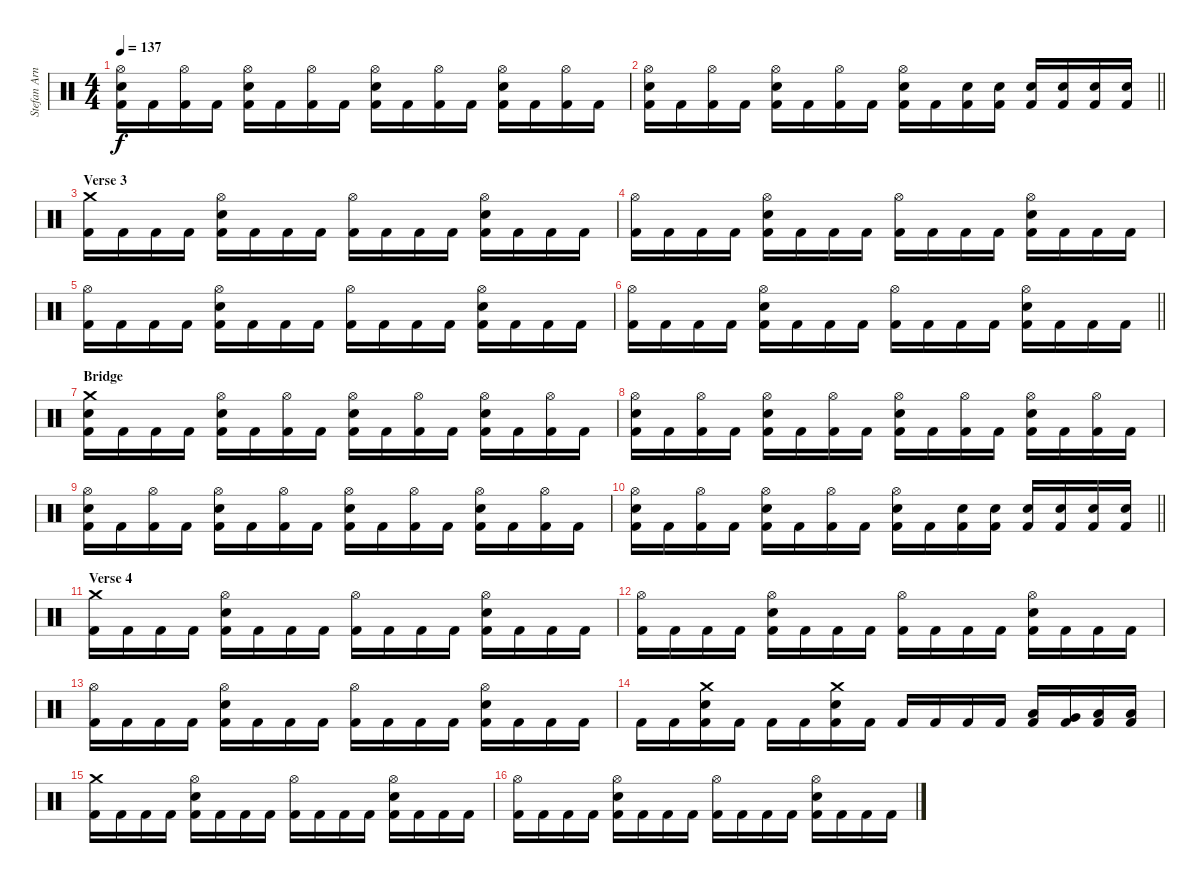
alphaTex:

\track ("Stefan Arnold" "Stefan Arn") {instrument percussion}
\staff {score}
\articulation defaults
\ts (4 4)
\tempo 137
\clef neutral
\ks c
("Hi-Hat (open)" "Electric Snare (hit)" "Kick (hit) 2").16{dy f} "Kick (hit) 2".16 ("Hi-Hat (open)" "Kick (hit) 2").16 "Kick (hit) 2".16 ("Hi-Hat (open)" "Electric Snare (hit)" "Kick (hit) 2").16 "Kick (hit) 2".16 ("Hi-Hat (open)" "Kick (hit) 2").16 "Kick (hit) 2".16 ("Hi-Hat (open)" "Electric Snare (hit)" "Kick (hit) 2").16 "Kick (hit) 2".16 ("Hi-Hat (open)" "Kick (hit) 2").16 "Kick (hit) 2".16 ("Hi-Hat (open)" "Electric Snare (hit)" "Kick (hit) 2").16 "Kick (hit) 2".16 ("Hi-Hat (open)" "Kick (hit) 2").16 "Kick (hit) 2".16 |
\barLineRight lightlight
("Hi-Hat (open)" "Electric Snare (hit)" "Kick (hit) 2").16 "Kick (hit) 2".16 ("Hi-Hat (open)" "Kick (hit) 2").16 "Kick (hit) 2".16 ("Hi-Hat (open)" "Electric Snare (hit)" "Kick (hit) 2").16 "Kick (hit) 2".16 ("Hi-Hat (open)" "Kick (hit) 2").16 "Kick (hit) 2".16 ("Hi-Hat (open)" "Electric Snare (hit)" "Kick (hit) 2").16 "Kick (hit) 2".16 ("Electric Snare (hit)" "Kick (hit) 2").16 ("Electric Snare (hit)" "Kick (hit) 2").16 ("Electric Snare (hit)" "Kick (hit) 2").16 ("Electric Snare (hit)" "Kick (hit) 2").16 ("Electric Snare (hit)" "Kick (hit) 2").16 ("Electric Snare (hit)" "Kick (hit) 2").16 |
\section ("" "Verse 3")
("Crash medium (hit)" "Kick (hit) 2").16 "Kick (hit) 2".16 "Kick (hit) 2".16 "Kick (hit) 2".16 ("Hi-Hat (open)" "Electric Snare (hit)" "Kick (hit) 2").16 "Kick (hit) 2".16 "Kick (hit) 2".16 "Kick (hit) 2".16 ("Hi-Hat (open)" "Kick (hit) 2").16 "Kick (hit) 2".16 "Kick (hit) 2".16 "Kick (hit) 2".16 ("Hi-Hat (open)" "Electric Snare (hit)" "Kick (hit) 2").16 "Kick (hit) 2".16 "Kick (hit) 2".16 "Kick (hit) 2".16 |
("Hi-Hat (open)" "Kick (hit) 2").16 "Kick (hit) 2".16 "Kick (hit) 2".16 "Kick (hit) 2".16 ("Hi-Hat (open)" "Electric Snare (hit)" "Kick (hit) 2").16 "Kick (hit) 2".16 "Kick (hit) 2".16 "Kick (hit) 2".16 ("Hi-Hat (open)" "Kick (hit) 2").16 "Kick (hit) 2".16 "Kick (hit) 2".16 "Kick (hit) 2".16 ("Hi-Hat (open)" "Electric Snare (hit)" "Kick (hit) 2").16 "Kick (hit) 2".16 "Kick (hit) 2".16 "Kick (hit) 2".16 |
("Hi-Hat (open)" "Kick (hit) 2").16 "Kick (hit) 2".16 "Kick (hit) 2".16 "Kick (hit) 2".16 ("Hi-Hat (open)" "Electric Snare (hit)" "Kick (hit) 2").16 "Kick (hit) 2".16 "Kick (hit) 2".16 "Kick (hit) 2".16 ("Hi-Hat (open)" "Kick (hit) 2").16 "Kick (hit) 2".16 "Kick (hit) 2".16 "Kick (hit) 2".16 ("Hi-Hat (open)" "Electric Snare (hit)" "Kick (hit) 2").16 "Kick (hit) 2".16 "Kick (hit) 2".16 "Kick (hit) 2".16 |
\barLineRight lightlight
("Hi-Hat (open)" "Kick (hit) 2").16 "Kick (hit) 2".16 "Kick (hit) 2".16 "Kick (hit) 2".16 ("Hi-Hat (open)" "Electric Snare (hit)" "Kick (hit) 2").16 "Kick (hit) 2".16 "Kick (hit) 2".16 "Kick (hit) 2".16 ("Hi-Hat (open)" "Kick (hit) 2").16 "Kick (hit) 2".16 "Kick (hit) 2".16 "Kick (hit) 2".16 ("Hi-Hat (open)" "Electric Snare (hit)" "Kick (hit) 2").16 "Kick (hit) 2".16 "Kick (hit) 2".16 "Kick (hit) 2".16 |
\section ("" "Bridge")
("Crash medium (hit)" "Electric Snare (hit)" "Kick (hit) 2").16 "Kick (hit) 2".16 "Kick (hit) 2".16 "Kick (hit) 2".16 ("Hi-Hat (open)" "Electric Snare (hit)" "Kick (hit) 2").16 "Kick (hit) 2".16 ("Hi-Hat (open)" "Kick (hit) 2").16 "Kick (hit) 2".16 ("Hi-Hat (open)" "Electric Snare (hit)" "Kick (hit) 2").16 "Kick (hit) 2".16 ("Hi-Hat (open)" "Kick (hit) 2").16 "Kick (hit) 2".16 ("Hi-Hat (open)" "Electric Snare (hit)" "Kick (hit) 2").16 "Kick (hit) 2".16 ("Hi-Hat (open)" "Kick (hit) 2").16 "Kick (hit) 2".16 |
("Hi-Hat (open)" "Electric Snare (hit)" "Kick (hit) 2").16 "Kick (hit) 2".16 ("Hi-Hat (open)" "Kick (hit) 2").16 "Kick (hit) 2".16 ("Hi-Hat (open)" "Electric Snare (hit)" "Kick (hit) 2").16 "Kick (hit) 2".16 ("Hi-Hat (open)" "Kick (hit) 2").16 "Kick (hit) 2".16 ("Hi-Hat (open)" "Electric Snare (hit)" "Kick (hit) 2").16 "Kick (hit) 2".16 ("Hi-Hat (open)" "Kick (hit) 2").16 "Kick (hit) 2".16 ("Hi-Hat (open)" "Electric Snare (hit)" "Kick (hit) 2").16 "Kick (hit) 2".16 ("Hi-Hat (open)" "Kick (hit) 2").16 "Kick (hit) 2".16 |
("Hi-Hat (open)" "Electric Snare (hit)" "Kick (hit) 2").16 "Kick (hit) 2".16 ("Hi-Hat (open)" "Kick (hit) 2").16 "Kick (hit) 2".16 ("Hi-Hat (open)" "Electric Snare (hit)" "Kick (hit) 2").16 "Kick (hit) 2".16 ("Hi-Hat (open)" "Kick (hit) 2").16 "Kick (hit) 2".16 ("Hi-Hat (open)" "Electric Snare (hit)" "Kick (hit) 2").16 "Kick (hit) 2".16 ("Hi-Hat (open)" "Kick (hit) 2").16 "Kick (hit) 2".16 ("Hi-Hat (open)" "Electric Snare (hit)" "Kick (hit) 2").16 "Kick (hit) 2".16 ("Hi-Hat (open)" "Kick (hit) 2").16 "Kick (hit) 2".16 |
\barLineRight lightlight
("Hi-Hat (open)" "Electric Snare (hit)" "Kick (hit) 2").16 "Kick (hit) 2".16 ("Hi-Hat (open)" "Kick (hit) 2").16 "Kick (hit) 2".16 ("Hi-Hat (open)" "Electric Snare (hit)" "Kick (hit) 2").16 "Kick (hit) 2".16 ("Hi-Hat (open)" "Kick (hit) 2").16 "Kick (hit) 2".16 ("Hi-Hat (open)" "Electric Snare (hit)" "Kick (hit) 2").16 "Kick (hit) 2".16 ("Electric Snare (hit)" "Kick (hit) 2").16 ("Electric Snare (hit)" "Kick (hit) 2").16 ("Electric Snare (hit)" "Kick (hit) 2").16 ("Electric Snare (hit)" "Kick (hit) 2").16 ("Electric Snare (hit)" "Kick (hit) 2").16 ("Electric Snare (hit)" "Kick (hit) 2").16 |
\section ("" "Verse 4")
("Crash medium (hit)" "Kick (hit) 2").16 "Kick (hit) 2".16 "Kick (hit) 2".16 "Kick (hit) 2".16 ("Hi-Hat (open)" "Electric Snare (hit)" "Kick (hit) 2").16 "Kick (hit) 2".16 "Kick (hit) 2".16 "Kick (hit) 2".16 ("Hi-Hat (open)" "Kick (hit) 2").16 "Kick (hit) 2".16 "Kick (hit) 2".16 "Kick (hit) 2".16 ("Hi-Hat (open)" "Electric Snare (hit)" "Kick (hit) 2").16 "Kick (hit) 2".16 "Kick (hit) 2".16 "Kick (hit) 2".16 |
("Hi-Hat (open)" "Kick (hit) 2").16 "Kick (hit) 2".16 "Kick (hit) 2".16 "Kick (hit) 2".16 ("Hi-Hat (open)" "Electric Snare (hit)" "Kick (hit) 2").16 "Kick (hit) 2".16 "Kick (hit) 2".16 "Kick (hit) 2".16 ("Hi-Hat (open)" "Kick (hit) 2").16 "Kick (hit) 2".16 "Kick (hit) 2".16 "Kick (hit) 2".16 ("Hi-Hat (open)" "Electric Snare (hit)" "Kick (hit) 2").16 "Kick (hit) 2".16 "Kick (hit) 2".16 "Kick (hit) 2".16 |
("Hi-Hat (open)" "Kick (hit) 2").16 "Kick (hit) 2".16 "Kick (hit) 2".16 "Kick (hit) 2".16 ("Hi-Hat (open)" "Electric Snare (hit)" "Kick (hit) 2").16 "Kick (hit) 2".16 "Kick (hit) 2".16 "Kick (hit) 2".16 ("Hi-Hat (open)" "Kick (hit) 2").16 "Kick (hit) 2".16 "Kick (hit) 2".16 "Kick (hit) 2".16 ("Hi-Hat (open)" "Electric Snare (hit)" "Kick (hit) 2").16 "Kick (hit) 2".16 "Kick (hit) 2".16 "Kick (hit) 2".16 |
"Kick (hit) 2".16 "Kick (hit) 2".16 ("Crash medium (hit)" "Electric Snare (hit)" "Kick (hit) 2").16 "Kick (hit) 2".16 "Kick (hit) 2".16 "Kick (hit) 2".16 ("Crash medium (hit)" "Electric Snare (hit)" "Kick (hit) 2").16 "Kick (hit) 2".16 "Kick (hit) 2".16 "Kick (hit) 2".16 "Kick (hit) 2".16 "Kick (hit) 2".16 ("Low Tom (hit)" "Kick (hit) 2").16 ("Very Low Tom (hit)" "Kick (hit) 2").16 ("Low Floor Tom (hit)" "Kick (hit) 2").16 ("Low Floor Tom (hit)" "Kick (hit) 2").16 |
("Crash medium (hit)" "Kick (hit) 2").16 "Kick (hit) 2".16 "Kick (hit) 2".16 "Kick (hit) 2".16 ("Hi-Hat (open)" "Electric Snare (hit)" "Kick (hit) 2").16 "Kick (hit) 2".16 "Kick (hit) 2".16 "Kick (hit) 2".16 ("Hi-Hat (open)" "Kick (hit) 2").16 "Kick (hit) 2".16 "Kick (hit) 2".16 "Kick (hit) 2".16 ("Hi-Hat (open)" "Electric Snare (hit)" "Kick (hit) 2").16 "Kick (hit) 2".16 "Kick (hit) 2".16 "Kick (hit) 2".16 |
("Hi-Hat (open)" "Kick (hit) 2").16 "Kick (hit) 2".16 "Kick (hit) 2".16 "Kick (hit) 2".16 ("Hi-Hat (open)" "Electric Snare (hit)" "Kick (hit) 2").16 "Kick (hit) 2".16 "Kick (hit) 2".16 "Kick (hit) 2".16 ("Hi-Hat (open)" "Kick (hit) 2").16 "Kick (hit) 2".16 "Kick (hit) 2".16 "Kick (hit) 2".16 ("Hi-Hat (open)" "Electric Snare (hit)" "Kick (hit) 2").16 "Kick (hit) 2".16 "Kick (hit) 2".16 "Kick (hit) 2".16
